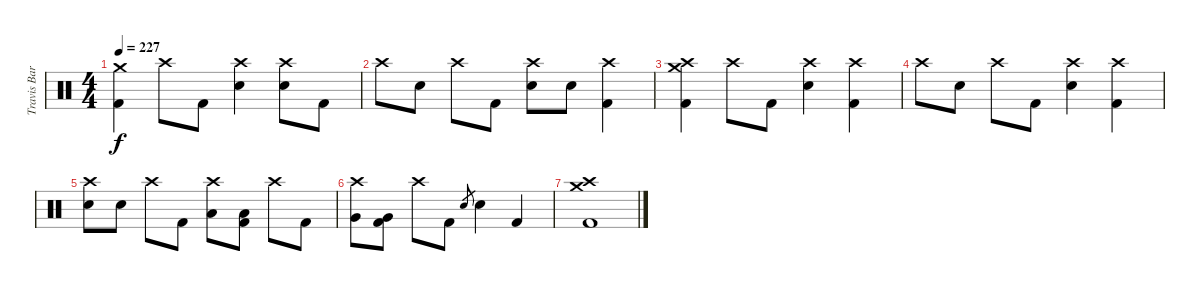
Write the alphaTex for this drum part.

\track ("Travis Barker - Batería" "Travis Bar") {instrument percussion}
\staff {score}
\articulation defaults
\ts (4 4)
\tempo 227
\clef neutral
\ks c
("Crash medium (hit)" "Kick (hit) 2").4{dy f} "Crash high (hit)".8 "Kick (hit) 2".8 ("Crash high (hit)" "Electric Snare (hit)").4 ("Crash high (hit)" "Electric Snare (hit)").8 "Kick (hit) 2".8 |
"Crash high (hit)".8 "Electric Snare (hit)".8 "Crash high (hit)".8 "Kick (hit) 2".8 ("Crash high (hit)" "Electric Snare (hit)").8 "Electric Snare (hit)".8 ("Crash high (hit)" "Kick (hit) 2").4 |
("Crash medium (hit)" "Crash high (hit)" "Kick (hit) 2").4 "Crash high (hit)".8 "Kick (hit) 2".8 ("Crash high (hit)" "Electric Snare (hit)").4 ("Crash high (hit)" "Kick (hit) 2").4 |
"Crash high (hit)".8 "Electric Snare (hit)".8 "Crash high (hit)".8 "Kick (hit) 2".8 ("Crash high (hit)" "Electric Snare (hit)").4 ("Crash high (hit)" "Kick (hit) 2").4 |
("Crash high (hit)" "Electric Snare (hit)").8 "Electric Snare (hit)".8 "Crash high (hit)".8 "Kick (hit) 2".8 ("Crash high (hit)" "Low Tom (hit)").8 ("Low Tom (hit)" "Kick (hit) 2").8 "Crash high (hit)".8 "Kick (hit) 2".8 |
("Crash high (hit)" "Very Low Tom (hit)").8 ("Very Low Tom (hit)" "Kick (hit) 2").8 "Crash high (hit)".8 "Kick (hit) 2".8 "Electric Snare (hit)".8{gr} "Electric Snare (hit)".4 "Kick (hit) 2".4 |
("Crash medium (hit)" "Crash high (hit)" "Kick (hit) 2").1
